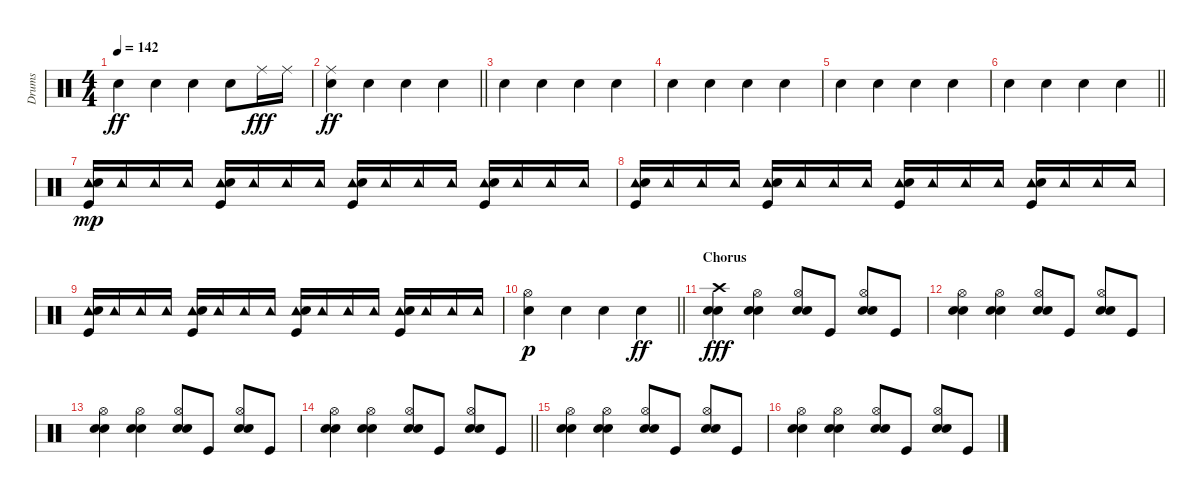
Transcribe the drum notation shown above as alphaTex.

\track ("Drums" "Drums") {instrument percussion}
\staff {score}
\articulation defaults
\ts (4 4)
\tempo 142
\clef neutral
\ks c "Hand Clap (hit)".4{dy ff} "Hand Clap (hit)".4 "Hand Clap (hit)".4 "Hand Clap (hit)".8 "Ride (middle)".16{dy fff} "Ride (middle)".16
|
\barLineRight lightlight
("Ride (middle)" "Hand Clap (hit)").4{dy ff} "Hand Clap (hit)".4 "Hand Clap (hit)".4 "Hand Clap (hit)".4 |
"Hand Clap (hit)".4 "Hand Clap (hit)".4 "Hand Clap (hit)".4 "Hand Clap (hit)".4 |
"Hand Clap (hit)".4 "Hand Clap (hit)".4 "Hand Clap (hit)".4 "Hand Clap (hit)".4 |
"Hand Clap (hit)".4 "Hand Clap (hit)".4 "Hand Clap (hit)".4 "Hand Clap (hit)".4 |
\barLineRight lightlight "Hand Clap (hit)".4 "Hand Clap (hit)".4 "Hand Clap (hit)".4 "Hand Clap (hit)".4
|
("Tambourine (hit)" "Hand Clap (hit)" "Kick (hit)").16{dy mp} "Tambourine (hit)".16 "Tambourine (hit)".16 "Tambourine (hit)".16 ("Tambourine (hit)" "Hand Clap (hit)" "Kick (hit)").16 "Tambourine (hit)".16 "Tambourine (hit)".16 "Tambourine (hit)".16 ("Tambourine (hit)" "Hand Clap (hit)" "Kick (hit)").16 "Tambourine (hit)".16 "Tambourine (hit)".16 "Tambourine (hit)".16 ("Tambourine (hit)" "Hand Clap (hit)" "Kick (hit)").16 "Tambourine (hit)".16 "Tambourine (hit)".16 "Tambourine (hit)".16 |
("Tambourine (hit)" "Hand Clap (hit)" "Kick (hit)").16 "Tambourine (hit)".16 "Tambourine (hit)".16 "Tambourine (hit)".16 ("Tambourine (hit)" "Hand Clap (hit)" "Kick (hit)").16 "Tambourine (hit)".16 "Tambourine (hit)".16 "Tambourine (hit)".16 ("Tambourine (hit)" "Hand Clap (hit)" "Kick (hit)").16 "Tambourine (hit)".16 "Tambourine (hit)".16 "Tambourine (hit)".16 ("Tambourine (hit)" "Hand Clap (hit)" "Kick (hit)").16 "Tambourine (hit)".16 "Tambourine (hit)".16 "Tambourine (hit)".16 |
("Tambourine (hit)" "Hand Clap (hit)" "Kick (hit)").16 "Tambourine (hit)".16 "Tambourine (hit)".16 "Tambourine (hit)".16 ("Tambourine (hit)" "Hand Clap (hit)" "Kick (hit)").16 "Tambourine (hit)".16 "Tambourine (hit)".16 "Tambourine (hit)".16 ("Tambourine (hit)" "Hand Clap (hit)" "Kick (hit)").16 "Tambourine (hit)".16 "Tambourine (hit)".16 "Tambourine (hit)".16 ("Tambourine (hit)" "Hand Clap (hit)" "Kick (hit)").16 "Tambourine (hit)".16 "Tambourine (hit)".16 "Tambourine (hit)".16 |
\barLineRight lightlight
("Hi-Hat (open)" "Hand Clap (hit)").4{dy p} "Hand Clap (hit)".4 "Hand Clap (hit)".4 "Electric Snare (hit)".4{dy ff} |
\section ("" "Chorus")
("Crash high (hit)" "Hand Clap (hit)" "Electric Snare (hit)").4{dy fff} ("Hi-Hat (open)" "Hand Clap (hit)" "Electric Snare (hit)").4 ("Hi-Hat (open)" "Hand Clap (hit)" "Electric Snare (hit)").8 "Kick (hit)".8 ("Hi-Hat (open)" "Hand Clap (hit)" "Electric Snare (hit)").8 "Kick (hit)".8 |
("Hi-Hat (open)" "Hand Clap (hit)" "Electric Snare (hit)").4 ("Hi-Hat (open)" "Hand Clap (hit)" "Electric Snare (hit)").4 ("Hi-Hat (open)" "Hand Clap (hit)" "Electric Snare (hit)").8 "Kick (hit)".8 ("Hi-Hat (open)" "Hand Clap (hit)" "Electric Snare (hit)").8 "Kick (hit)".8 |
("Hi-Hat (open)" "Hand Clap (hit)" "Electric Snare (hit)").4 ("Hi-Hat (open)" "Hand Clap (hit)" "Electric Snare (hit)").4 ("Hi-Hat (open)" "Hand Clap (hit)" "Electric Snare (hit)").8 "Kick (hit)".8 ("Hi-Hat (open)" "Hand Clap (hit)" "Electric Snare (hit)").8 "Kick (hit)".8 |
\barLineRight lightlight
("Hi-Hat (open)" "Hand Clap (hit)" "Electric Snare (hit)").4 ("Hi-Hat (open)" "Hand Clap (hit)" "Electric Snare (hit)").4 ("Hi-Hat (open)" "Hand Clap (hit)" "Electric Snare (hit)").8 "Kick (hit)".8 ("Hi-Hat (open)" "Hand Clap (hit)" "Electric Snare (hit)").8 "Kick (hit)".8 |
("Hi-Hat (open)" "Hand Clap (hit)" "Electric Snare (hit)").4 ("Hi-Hat (open)" "Hand Clap (hit)" "Electric Snare (hit)").4 ("Hi-Hat (open)" "Hand Clap (hit)" "Electric Snare (hit)").8 "Kick (hit)".8 ("Hi-Hat (open)" "Hand Clap (hit)" "Electric Snare (hit)").8 "Kick (hit)".8 |
("Hi-Hat (open)" "Hand Clap (hit)" "Electric Snare (hit)").4 ("Hi-Hat (open)" "Hand Clap (hit)" "Electric Snare (hit)").4 ("Hi-Hat (open)" "Hand Clap (hit)" "Electric Snare (hit)").8 "Kick (hit)".8 ("Hi-Hat (open)" "Hand Clap (hit)" "Electric Snare (hit)").8 "Kick (hit)".8
